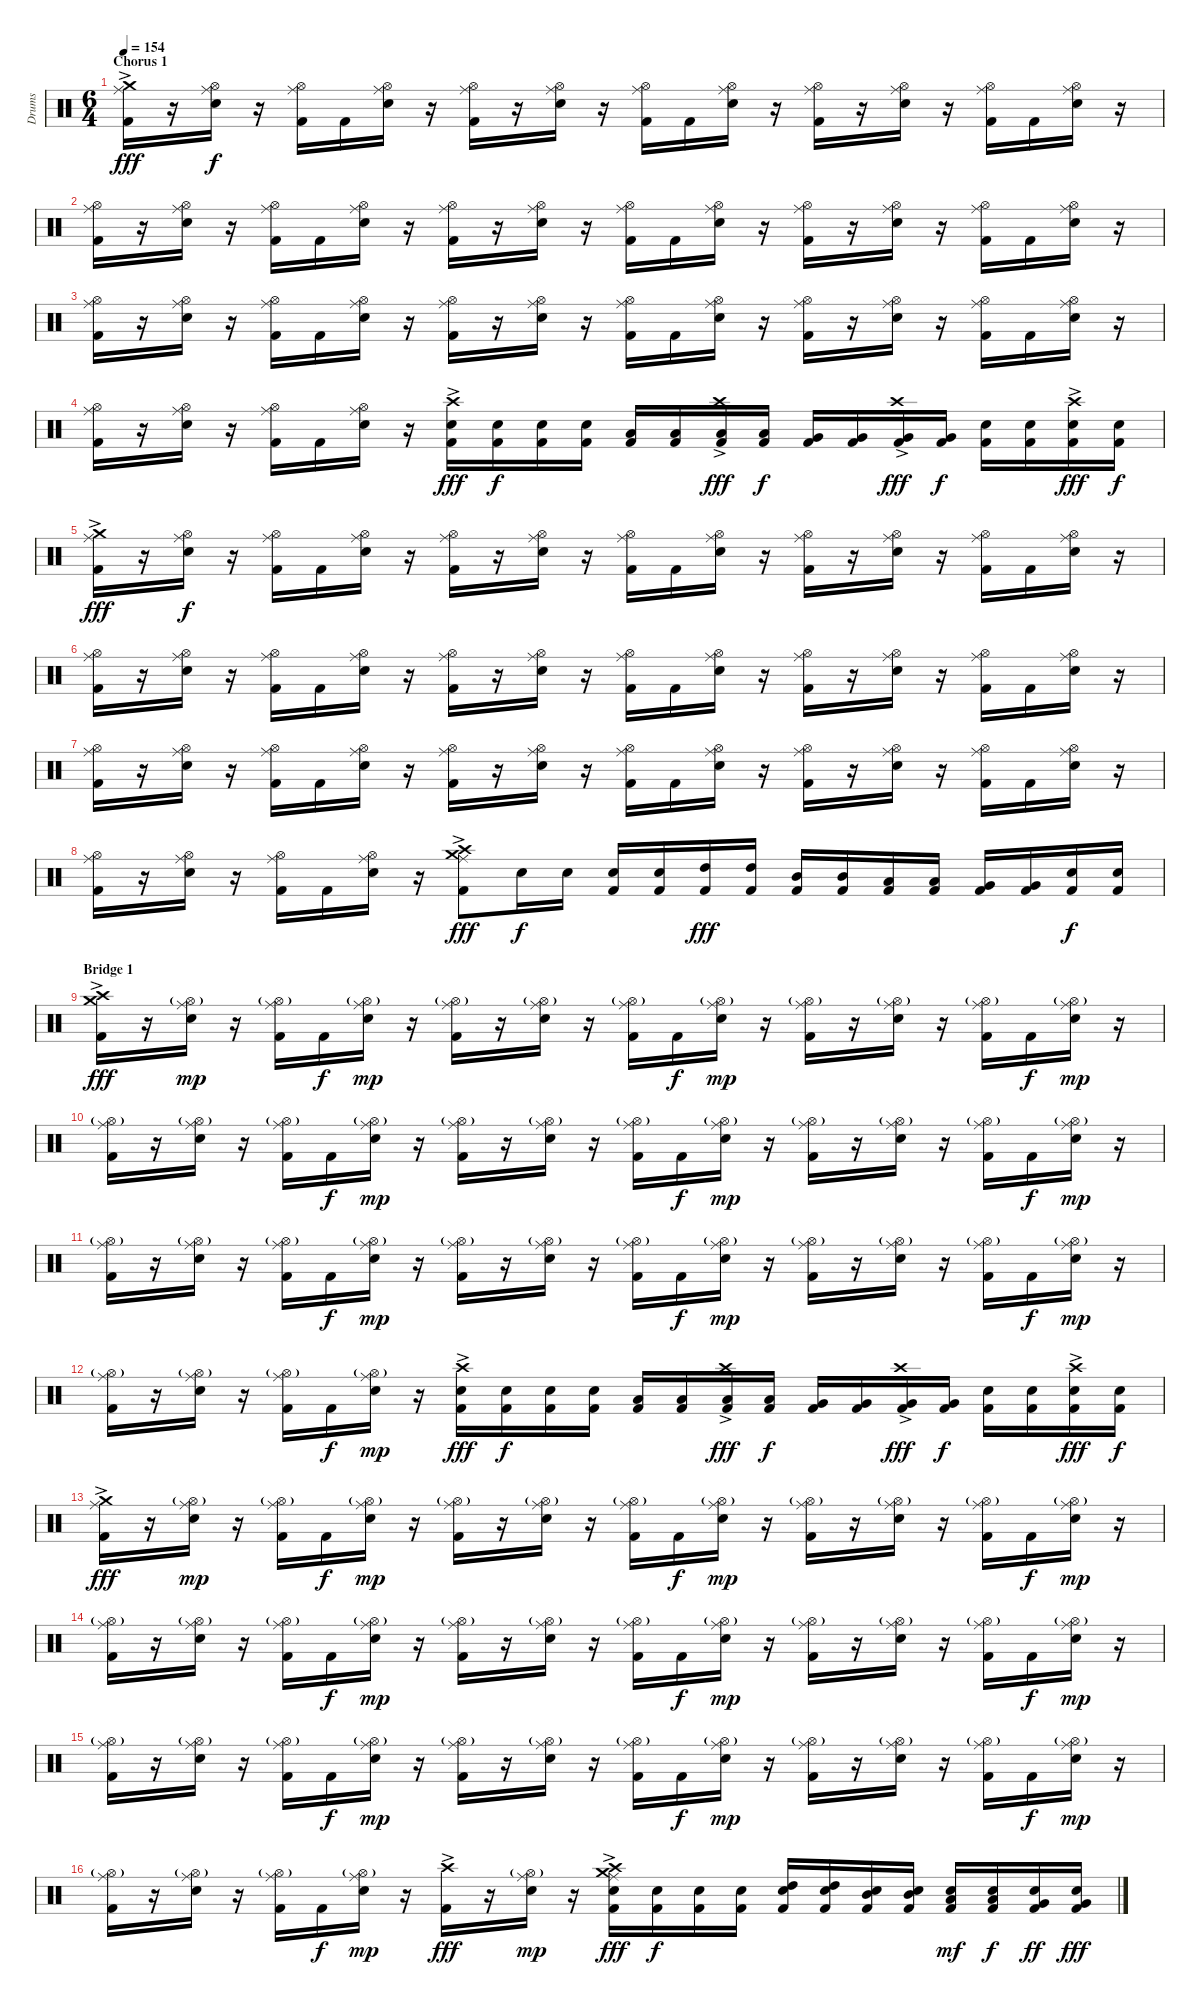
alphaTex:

\track ("Drums" "Drums") {instrument percussion}
\staff {score}
\articulation defaults
\ts (6 4)
\section ("" "Chorus 1")
\tempo 154
\clef neutral
\ks c
("Crash medium (hit)"{ac} "Ride (middle)" "Kick (hit) 2").16{dy fff} r.16 ("Hi-Hat (open)" "Ride (middle)" "Electric Snare (hit)").16{dy f} r.16 ("Hi-Hat (open)" "Ride (middle)" "Kick (hit) 2").16 "Kick (hit) 2".16 ("Hi-Hat (open)" "Ride (middle)" "Electric Snare (hit)").16 r.16 ("Hi-Hat (open)" "Ride (middle)" "Kick (hit) 2").16 r.16 ("Hi-Hat (open)" "Ride (middle)" "Electric Snare (hit)").16 r.16 ("Hi-Hat (open)" "Ride (middle)" "Kick (hit) 2").16 "Kick (hit) 2".16 ("Hi-Hat (open)" "Ride (middle)" "Electric Snare (hit)").16 r.16 ("Hi-Hat (open)" "Ride (middle)" "Kick (hit) 2").16 r.16 ("Hi-Hat (open)" "Ride (middle)" "Electric Snare (hit)").16 r.16 ("Hi-Hat (open)" "Ride (middle)" "Kick (hit) 2").16 "Kick (hit) 2".16 ("Hi-Hat (open)" "Ride (middle)" "Electric Snare (hit)").16 r.16 |
("Hi-Hat (open)" "Ride (middle)" "Kick (hit) 2").16 r.16 ("Hi-Hat (open)" "Ride (middle)" "Electric Snare (hit)").16 r.16 ("Hi-Hat (open)" "Ride (middle)" "Kick (hit) 2").16 "Kick (hit) 2".16 ("Hi-Hat (open)" "Ride (middle)" "Electric Snare (hit)").16 r.16 ("Hi-Hat (open)" "Ride (middle)" "Kick (hit) 2").16 r.16 ("Hi-Hat (open)" "Ride (middle)" "Electric Snare (hit)").16 r.16 ("Hi-Hat (open)" "Ride (middle)" "Kick (hit) 2").16 "Kick (hit) 2".16 ("Hi-Hat (open)" "Ride (middle)" "Electric Snare (hit)").16 r.16 ("Hi-Hat (open)" "Ride (middle)" "Kick (hit) 2").16 r.16 ("Hi-Hat (open)" "Ride (middle)" "Electric Snare (hit)").16 r.16 ("Hi-Hat (open)" "Ride (middle)" "Kick (hit) 2").16 "Kick (hit) 2".16 ("Hi-Hat (open)" "Ride (middle)" "Electric Snare (hit)").16 r.16 |
("Hi-Hat (open)" "Ride (middle)" "Kick (hit) 2").16 r.16 ("Hi-Hat (open)" "Ride (middle)" "Electric Snare (hit)").16 r.16 ("Hi-Hat (open)" "Ride (middle)" "Kick (hit) 2").16 "Kick (hit) 2".16 ("Hi-Hat (open)" "Ride (middle)" "Electric Snare (hit)").16 r.16 ("Hi-Hat (open)" "Ride (middle)" "Kick (hit) 2").16 r.16 ("Hi-Hat (open)" "Ride (middle)" "Electric Snare (hit)").16 r.16 ("Hi-Hat (open)" "Ride (middle)" "Kick (hit) 2").16 "Kick (hit) 2".16 ("Hi-Hat (open)" "Ride (middle)" "Electric Snare (hit)").16 r.16 ("Hi-Hat (open)" "Ride (middle)" "Kick (hit) 2").16 r.16 ("Hi-Hat (open)" "Ride (middle)" "Electric Snare (hit)").16 r.16 ("Hi-Hat (open)" "Ride (middle)" "Kick (hit) 2").16 "Kick (hit) 2".16 ("Hi-Hat (open)" "Ride (middle)" "Electric Snare (hit)").16 r.16 |
("Hi-Hat (open)" "Ride (middle)" "Kick (hit) 2").16 r.16 ("Hi-Hat (open)" "Ride (middle)" "Electric Snare (hit)").16 r.16 ("Hi-Hat (open)" "Ride (middle)" "Kick (hit) 2").16 "Kick (hit) 2".16 ("Hi-Hat (open)" "Ride (middle)" "Electric Snare (hit)").16 r.16 ("Crash high (hit)"{ac} "Electric Snare (hit)" "Kick (hit) 2").16{dy fff} ("Electric Snare (hit)" "Kick (hit) 2").16{dy f} ("Electric Snare (hit)" "Kick (hit) 2").16 ("Electric Snare (hit)" "Kick (hit) 2").16 ("Low Tom (hit)" "Kick (hit) 2").16 ("Low Tom (hit)" "Kick (hit) 2").16 ("Crash high (hit)"{ac} "Low Tom (hit)" "Kick (hit) 2").16{dy fff} ("Low Tom (hit)" "Kick (hit) 2").16{dy f} ("Very Low Tom (hit)" "Kick (hit) 2").16 ("Very Low Tom (hit)" "Kick (hit) 2").16 ("Crash high (hit)"{ac} "Very Low Tom (hit)" "Kick (hit) 2").16{dy fff} ("Very Low Tom (hit)" "Kick (hit) 2").16{dy f} ("Electric Snare (hit)" "Kick (hit) 2").16 ("Electric Snare (hit)" "Kick (hit) 2").16 ("Crash high (hit)"{ac} "Electric Snare (hit)" "Kick (hit) 2").16{dy fff} ("Electric Snare (hit)" "Kick (hit) 2").16{dy f} |
("Crash medium (hit)"{ac} "Ride (middle)" "Kick (hit) 2").16{dy fff} r.16 ("Hi-Hat (open)" "Ride (middle)" "Electric Snare (hit)").16{dy f} r.16 ("Hi-Hat (open)" "Ride (middle)" "Kick (hit) 2").16 "Kick (hit) 2".16 ("Hi-Hat (open)" "Ride (middle)" "Electric Snare (hit)").16 r.16 ("Hi-Hat (open)" "Ride (middle)" "Kick (hit) 2").16 r.16 ("Hi-Hat (open)" "Ride (middle)" "Electric Snare (hit)").16 r.16 ("Hi-Hat (open)" "Ride (middle)" "Kick (hit) 2").16 "Kick (hit) 2".16 ("Hi-Hat (open)" "Ride (middle)" "Electric Snare (hit)").16 r.16 ("Hi-Hat (open)" "Ride (middle)" "Kick (hit) 2").16 r.16 ("Hi-Hat (open)" "Ride (middle)" "Electric Snare (hit)").16 r.16 ("Hi-Hat (open)" "Ride (middle)" "Kick (hit) 2").16 "Kick (hit) 2".16 ("Hi-Hat (open)" "Ride (middle)" "Electric Snare (hit)").16 r.16 |
("Hi-Hat (open)" "Ride (middle)" "Kick (hit) 2").16 r.16 ("Hi-Hat (open)" "Ride (middle)" "Electric Snare (hit)").16 r.16 ("Hi-Hat (open)" "Ride (middle)" "Kick (hit) 2").16 "Kick (hit) 2".16 ("Hi-Hat (open)" "Ride (middle)" "Electric Snare (hit)").16 r.16 ("Hi-Hat (open)" "Ride (middle)" "Kick (hit) 2").16 r.16 ("Hi-Hat (open)" "Ride (middle)" "Electric Snare (hit)").16 r.16 ("Hi-Hat (open)" "Ride (middle)" "Kick (hit) 2").16 "Kick (hit) 2".16 ("Hi-Hat (open)" "Ride (middle)" "Electric Snare (hit)").16 r.16 ("Hi-Hat (open)" "Ride (middle)" "Kick (hit) 2").16 r.16 ("Hi-Hat (open)" "Ride (middle)" "Electric Snare (hit)").16 r.16 ("Hi-Hat (open)" "Ride (middle)" "Kick (hit) 2").16 "Kick (hit) 2".16 ("Hi-Hat (open)" "Ride (middle)" "Electric Snare (hit)").16 r.16 |
("Hi-Hat (open)" "Ride (middle)" "Kick (hit) 2").16 r.16 ("Hi-Hat (open)" "Ride (middle)" "Electric Snare (hit)").16 r.16 ("Hi-Hat (open)" "Ride (middle)" "Kick (hit) 2").16 "Kick (hit) 2".16 ("Hi-Hat (open)" "Ride (middle)" "Electric Snare (hit)").16 r.16 ("Hi-Hat (open)" "Ride (middle)" "Kick (hit) 2").16 r.16 ("Hi-Hat (open)" "Ride (middle)" "Electric Snare (hit)").16 r.16 ("Hi-Hat (open)" "Ride (middle)" "Kick (hit) 2").16 "Kick (hit) 2".16 ("Hi-Hat (open)" "Ride (middle)" "Electric Snare (hit)").16 r.16 ("Hi-Hat (open)" "Ride (middle)" "Kick (hit) 2").16 r.16 ("Hi-Hat (open)" "Ride (middle)" "Electric Snare (hit)").16 r.16 ("Hi-Hat (open)" "Ride (middle)" "Kick (hit) 2").16 "Kick (hit) 2".16 ("Hi-Hat (open)" "Ride (middle)" "Electric Snare (hit)").16 r.16 |
("Hi-Hat (open)" "Ride (middle)" "Kick (hit) 2").16 r.16 ("Hi-Hat (open)" "Ride (middle)" "Electric Snare (hit)").16 r.16 ("Hi-Hat (open)" "Ride (middle)" "Kick (hit) 2").16 "Kick (hit) 2".16 ("Hi-Hat (open)" "Ride (middle)" "Electric Snare (hit)").16 r.16 ("Crash high (hit)"{ac} "Ride (middle)" "Crash medium (hit)"{ac} "Kick (hit) 2").8{dy fff} "Electric Snare (hit)".16{dy f} "Electric Snare (hit)".16 ("Electric Snare (hit)" "Kick (hit) 2").16 ("Electric Snare (hit)" "Kick (hit) 2").16 ("High Tom (hit)" "Kick (hit) 2").16{dy fff} ("High Tom (hit)" "Kick (hit) 2").16 ("Mid Tom (hit)" "Kick (hit) 2").16 ("Mid Tom (hit)" "Kick (hit) 2").16 ("Low Tom (hit)" "Kick (hit) 2").16 ("Low Tom (hit)" "Kick (hit) 2").16 ("Very Low Tom (hit)" "Kick (hit) 2").16 ("Very Low Tom (hit)" "Kick (hit) 2").16 ("Electric Snare (hit)" "Kick (hit) 2").16{dy f} ("Electric Snare (hit)" "Kick (hit) 2").16 |
\section ("" "Bridge 1")
("Crash high (hit)"{ac} "Crash medium (hit)"{ac} "Kick (hit) 2").16{dy fff volume 15} r.16 ("Hi-Hat (open)"{g} "Ride (middle)" "Electric Snare (hit)").16{dy mp} r.16 ("Hi-Hat (open)"{g} "Ride (middle)" "Kick (hit) 2").16 "Kick (hit) 2".16{dy f} ("Hi-Hat (open)"{g} "Ride (middle)" "Electric Snare (hit)").16{dy mp} r.16 ("Hi-Hat (open)"{g} "Ride (middle)" "Kick (hit) 2").16 r.16 ("Hi-Hat (open)"{g} "Ride (middle)" "Electric Snare (hit)").16 r.16 ("Hi-Hat (open)"{g} "Ride (middle)" "Kick (hit) 2").16 "Kick (hit) 2".16{dy f} ("Hi-Hat (open)"{g} "Ride (middle)" "Electric Snare (hit)").16{dy mp} r.16 ("Hi-Hat (open)"{g} "Ride (middle)" "Kick (hit) 2").16 r.16 ("Hi-Hat (open)"{g} "Ride (middle)" "Electric Snare (hit)").16 r.16 ("Hi-Hat (open)"{g} "Ride (middle)" "Kick (hit) 2").16 "Kick (hit) 2".16{dy f} ("Hi-Hat (open)"{g} "Ride (middle)" "Electric Snare (hit)").16{dy mp} r.16 |
("Hi-Hat (open)"{g} "Ride (middle)" "Kick (hit) 2").16{volume 15} r.16 ("Hi-Hat (open)"{g} "Ride (middle)" "Electric Snare (hit)").16 r.16 ("Hi-Hat (open)"{g} "Ride (middle)" "Kick (hit) 2").16 "Kick (hit) 2".16{dy f} ("Hi-Hat (open)"{g} "Ride (middle)" "Electric Snare (hit)").16{dy mp} r.16 ("Hi-Hat (open)"{g} "Ride (middle)" "Kick (hit) 2").16 r.16 ("Hi-Hat (open)"{g} "Ride (middle)" "Electric Snare (hit)").16 r.16 ("Hi-Hat (open)"{g} "Ride (middle)" "Kick (hit) 2").16 "Kick (hit) 2".16{dy f} ("Hi-Hat (open)"{g} "Ride (middle)" "Electric Snare (hit)").16{dy mp} r.16 ("Hi-Hat (open)"{g} "Ride (middle)" "Kick (hit) 2").16 r.16 ("Hi-Hat (open)"{g} "Ride (middle)" "Electric Snare (hit)").16 r.16 ("Hi-Hat (open)"{g} "Ride (middle)" "Kick (hit) 2").16 "Kick (hit) 2".16{dy f} ("Hi-Hat (open)"{g} "Ride (middle)" "Electric Snare (hit)").16{dy mp} r.16 |
("Hi-Hat (open)"{g} "Ride (middle)" "Kick (hit) 2").16{volume 15} r.16 ("Hi-Hat (open)"{g} "Ride (middle)" "Electric Snare (hit)").16 r.16 ("Hi-Hat (open)"{g} "Ride (middle)" "Kick (hit) 2").16 "Kick (hit) 2".16{dy f} ("Hi-Hat (open)"{g} "Ride (middle)" "Electric Snare (hit)").16{dy mp} r.16 ("Hi-Hat (open)"{g} "Ride (middle)" "Kick (hit) 2").16 r.16 ("Hi-Hat (open)"{g} "Ride (middle)" "Electric Snare (hit)").16 r.16 ("Hi-Hat (open)"{g} "Ride (middle)" "Kick (hit) 2").16 "Kick (hit) 2".16{dy f} ("Hi-Hat (open)"{g} "Ride (middle)" "Electric Snare (hit)").16{dy mp} r.16 ("Hi-Hat (open)"{g} "Ride (middle)" "Kick (hit) 2").16 r.16 ("Hi-Hat (open)"{g} "Ride (middle)" "Electric Snare (hit)").16 r.16 ("Hi-Hat (open)"{g} "Ride (middle)" "Kick (hit) 2").16 "Kick (hit) 2".16{dy f} ("Hi-Hat (open)"{g} "Ride (middle)" "Electric Snare (hit)").16{dy mp} r.16 |
("Hi-Hat (open)"{g} "Ride (middle)" "Kick (hit) 2").16 r.16 ("Hi-Hat (open)"{g} "Ride (middle)" "Electric Snare (hit)").16 r.16 ("Hi-Hat (open)"{g} "Ride (middle)" "Kick (hit) 2").16 "Kick (hit) 2".16{dy f} ("Hi-Hat (open)"{g} "Ride (middle)" "Electric Snare (hit)").16{dy mp} r.16 ("Crash high (hit)"{ac} "Electric Snare (hit)" "Kick (hit) 2").16{dy fff} ("Electric Snare (hit)" "Kick (hit) 2").16{dy f} ("Electric Snare (hit)" "Kick (hit) 2").16 ("Electric Snare (hit)" "Kick (hit) 2").16 ("Low Tom (hit)" "Kick (hit) 2").16 ("Low Tom (hit)" "Kick (hit) 2").16 ("Crash high (hit)"{ac} "Low Tom (hit)" "Kick (hit) 2").16{dy fff} ("Low Tom (hit)" "Kick (hit) 2").16{dy f} ("Very Low Tom (hit)" "Kick (hit) 2").16 ("Very Low Tom (hit)" "Kick (hit) 2").16 ("Crash high (hit)"{ac} "Very Low Tom (hit)" "Kick (hit) 2").16{dy fff} ("Very Low Tom (hit)" "Kick (hit) 2").16{dy f} ("Electric Snare (hit)" "Kick (hit) 2").16 ("Electric Snare (hit)" "Kick (hit) 2").16 ("Crash high (hit)"{ac} "Electric Snare (hit)" "Kick (hit) 2").16{dy fff} ("Electric Snare (hit)" "Kick (hit) 2").16{dy f} |
("Crash medium (hit)"{ac} "Ride (middle)" "Kick (hit) 2").16{dy fff volume 15} r.16 ("Hi-Hat (open)"{g} "Ride (middle)" "Electric Snare (hit)").16{dy mp} r.16 ("Hi-Hat (open)"{g} "Ride (middle)" "Kick (hit) 2").16 "Kick (hit) 2".16{dy f} ("Hi-Hat (open)"{g} "Ride (middle)" "Electric Snare (hit)").16{dy mp} r.16 ("Hi-Hat (open)"{g} "Ride (middle)" "Kick (hit) 2").16 r.16 ("Hi-Hat (open)"{g} "Ride (middle)" "Electric Snare (hit)").16 r.16 ("Hi-Hat (open)"{g} "Ride (middle)" "Kick (hit) 2").16 "Kick (hit) 2".16{dy f} ("Hi-Hat (open)"{g} "Ride (middle)" "Electric Snare (hit)").16{dy mp} r.16 ("Hi-Hat (open)"{g} "Ride (middle)" "Kick (hit) 2").16 r.16 ("Hi-Hat (open)"{g} "Ride (middle)" "Electric Snare (hit)").16 r.16 ("Hi-Hat (open)"{g} "Ride (middle)" "Kick (hit) 2").16 "Kick (hit) 2".16{dy f} ("Hi-Hat (open)"{g} "Ride (middle)" "Electric Snare (hit)").16{dy mp} r.16 |
("Hi-Hat (open)"{g} "Ride (middle)" "Kick (hit) 2").16{volume 15} r.16 ("Hi-Hat (open)"{g} "Ride (middle)" "Electric Snare (hit)").16 r.16 ("Hi-Hat (open)"{g} "Ride (middle)" "Kick (hit) 2").16 "Kick (hit) 2".16{dy f} ("Hi-Hat (open)"{g} "Ride (middle)" "Electric Snare (hit)").16{dy mp} r.16 ("Hi-Hat (open)"{g} "Ride (middle)" "Kick (hit) 2").16 r.16 ("Hi-Hat (open)"{g} "Ride (middle)" "Electric Snare (hit)").16 r.16 ("Hi-Hat (open)"{g} "Ride (middle)" "Kick (hit) 2").16 "Kick (hit) 2".16{dy f} ("Hi-Hat (open)"{g} "Ride (middle)" "Electric Snare (hit)").16{dy mp} r.16 ("Hi-Hat (open)"{g} "Ride (middle)" "Kick (hit) 2").16 r.16 ("Hi-Hat (open)"{g} "Ride (middle)" "Electric Snare (hit)").16 r.16 ("Hi-Hat (open)"{g} "Ride (middle)" "Kick (hit) 2").16 "Kick (hit) 2".16{dy f} ("Hi-Hat (open)"{g} "Ride (middle)" "Electric Snare (hit)").16{dy mp} r.16 |
("Hi-Hat (open)"{g} "Ride (middle)" "Kick (hit) 2").16{volume 15} r.16 ("Hi-Hat (open)"{g} "Ride (middle)" "Electric Snare (hit)").16 r.16 ("Hi-Hat (open)"{g} "Ride (middle)" "Kick (hit) 2").16 "Kick (hit) 2".16{dy f} ("Hi-Hat (open)"{g} "Ride (middle)" "Electric Snare (hit)").16{dy mp} r.16 ("Hi-Hat (open)"{g} "Ride (middle)" "Kick (hit) 2").16 r.16 ("Hi-Hat (open)"{g} "Ride (middle)" "Electric Snare (hit)").16 r.16 ("Hi-Hat (open)"{g} "Ride (middle)" "Kick (hit) 2").16 "Kick (hit) 2".16{dy f} ("Hi-Hat (open)"{g} "Ride (middle)" "Electric Snare (hit)").16{dy mp} r.16 ("Hi-Hat (open)"{g} "Ride (middle)" "Kick (hit) 2").16 r.16 ("Hi-Hat (open)"{g} "Ride (middle)" "Electric Snare (hit)").16 r.16 ("Hi-Hat (open)"{g} "Ride (middle)" "Kick (hit) 2").16 "Kick (hit) 2".16{dy f} ("Hi-Hat (open)"{g} "Ride (middle)" "Electric Snare (hit)").16{dy mp} r.16 |
("Hi-Hat (open)"{g} "Ride (middle)" "Kick (hit) 2").16 r.16 ("Hi-Hat (open)"{g} "Ride (middle)" "Electric Snare (hit)").16 r.16 ("Hi-Hat (open)"{g} "Ride (middle)" "Kick (hit) 2").16 "Kick (hit) 2".16{dy f} ("Hi-Hat (open)"{g} "Ride (middle)" "Electric Snare (hit)").16{dy mp} r.16 ("Crash high (hit)"{ac} "Kick (hit) 2").16{dy fff} r.16 ("Hi-Hat (open)"{g} "Ride (middle)" "Electric Snare (hit)").16{dy mp} r.16 ("Crash high (hit)"{ac} "Ride (middle)"{ac} "Crash medium (hit)"{ac} "Electric Snare (hit)" "Kick (hit) 2").16{dy fff} ("Electric Snare (hit)" "Kick (hit) 2").16{dy f} ("Electric Snare (hit)" "Kick (hit) 2").16 ("Electric Snare (hit)" "Kick (hit) 2").16 ("High Tom (hit)" "Electric Snare (hit)" "Kick (hit) 2").16 ("High Tom (hit)" "Electric Snare (hit)" "Kick (hit) 2").16 ("Mid Tom (hit)" "Electric Snare (hit)" "Kick (hit) 2").16 ("Mid Tom (hit)" "Electric Snare (hit)" "Kick (hit) 2").16 ("Low Tom (hit)" "Electric Snare (hit)" "Kick (hit) 2").16{dy mf} ("Low Tom (hit)" "Electric Snare (hit)" "Kick (hit) 2").16{dy f} ("Very Low Tom (hit)" "Electric Snare (hit)" "Kick (hit) 2").16{dy ff} ("Very Low Tom (hit)" "Electric Snare (hit)" "Kick (hit) 2").16{dy fff}
